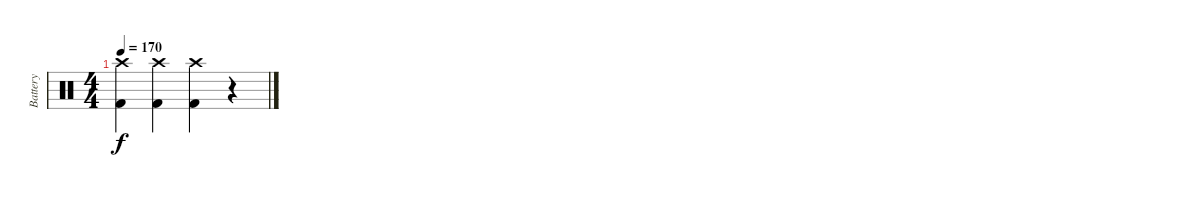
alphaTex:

\track ("Battery" "Battery") {instrument percussion}
\staff {score}
\articulation defaults
\ts (4 4)
\tempo 170
\clef neutral
\ks c
("Kick (hit) 2" "Crash high (hit)").4{dy f} ("Kick (hit) 2" "Crash high (hit)").4 ("Kick (hit) 2" "Crash high (hit)").4 r.4
